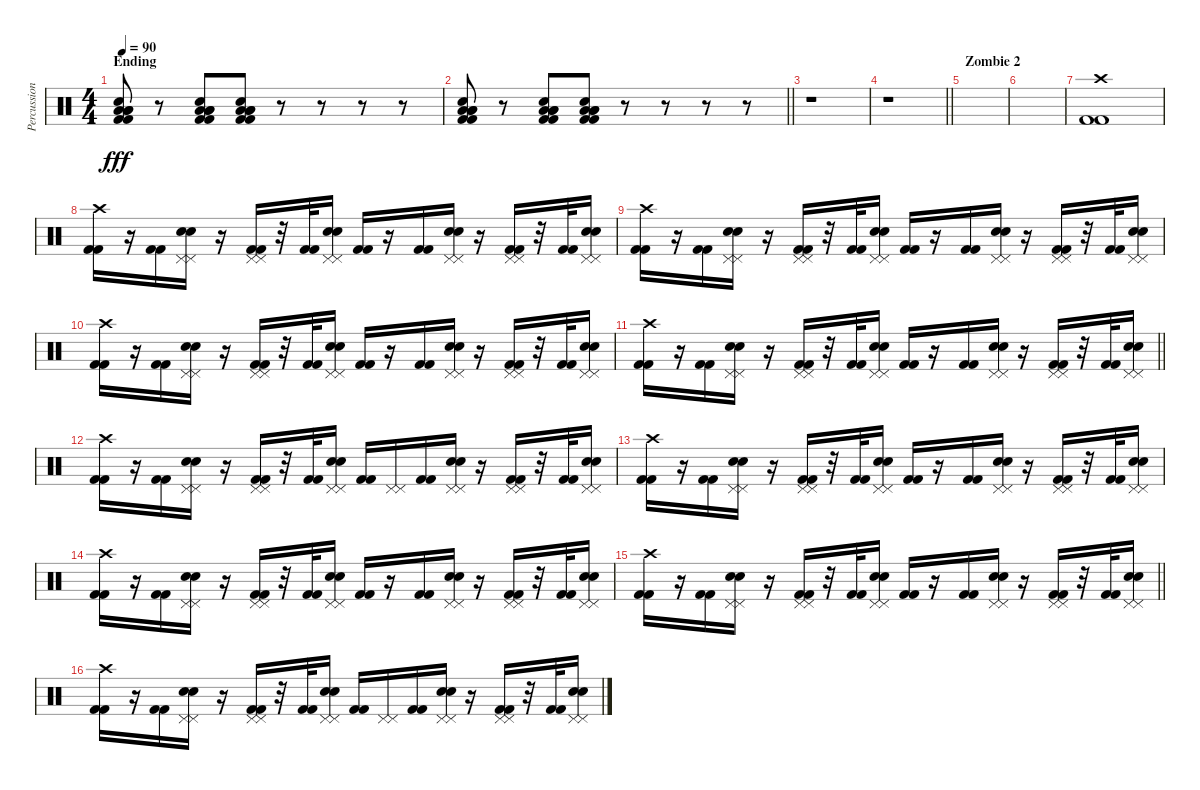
\track ("Percussion" "Percussion") {instrument percussion}
\staff {score}
\articulation defaults
\ts (4 4)
\section ("" "Ending")
\tempo 90
\clef neutral
\ks c
("Low Floor Tom (hit)" "Low Floor Tom (hit)" "Low Floor Tom (hit)" "Electric Snare (hit)" "Kick (hit) 2" "Kick (hit) 2").8{dy fff} r.8 ("Low Floor Tom (hit)" "Low Floor Tom (hit)" "Low Floor Tom (hit)" "Electric Snare (hit)" "Kick (hit) 2" "Kick (hit) 2").8 ("Low Floor Tom (hit)" "Low Floor Tom (hit)" "Low Floor Tom (hit)" "Electric Snare (hit)" "Kick (hit) 2" "Kick (hit) 2").8 r.8 r.8 r.8 r.8 |
\barLineRight lightlight
("Low Floor Tom (hit)" "Low Floor Tom (hit)" "Low Floor Tom (hit)" "Electric Snare (hit)" "Kick (hit) 2" "Kick (hit) 2").8 r.8 ("Low Floor Tom (hit)" "Low Floor Tom (hit)" "Low Floor Tom (hit)" "Electric Snare (hit)" "Kick (hit) 2" "Kick (hit) 2").8 ("Low Floor Tom (hit)" "Low Floor Tom (hit)" "Low Floor Tom (hit)" "Electric Snare (hit)" "Kick (hit) 2" "Kick (hit) 2").8 r.8 r.8 r.8 r.8 |
r.1 |
\barLineRight lightlight
r.1 |
\section ("" "Zombie 2")
|
|
("Crash high (hit)" "Kick (hit) 2" "Kick (hit) 2").1 |
("Crash high (hit)" "Kick (hit) 2" "Kick (hit) 2").16 r.16 ("Kick (hit) 2" "Kick (hit) 2").16 ("Pedal Hi-Hat (hit)" "Pedal Hi-Hat (hit)" "Electric Snare (hit)" "Electric Snare (hit)").16 r.16 ("Pedal Hi-Hat (hit)" "Pedal Hi-Hat (hit)" "Kick (hit) 2" "Kick (hit) 2").16 r.32 ("Kick (hit) 2" "Kick (hit) 2").32 ("Pedal Hi-Hat (hit)" "Pedal Hi-Hat (hit)" "Electric Snare (hit)" "Electric Snare (hit)").16 ("Kick (hit) 2" "Kick (hit) 2").16 r.16 ("Kick (hit) 2" "Kick (hit) 2").16 ("Pedal Hi-Hat (hit)" "Pedal Hi-Hat (hit)" "Electric Snare (hit)" "Electric Snare (hit)").16 r.16 ("Pedal Hi-Hat (hit)" "Pedal Hi-Hat (hit)" "Kick (hit) 2" "Kick (hit) 2").16 r.32 ("Kick (hit) 2" "Kick (hit) 2").32 ("Pedal Hi-Hat (hit)" "Pedal Hi-Hat (hit)" "Electric Snare (hit)" "Electric Snare (hit)").16 |
("Crash high (hit)" "Kick (hit) 2" "Kick (hit) 2").16 r.16 ("Kick (hit) 2" "Kick (hit) 2").16 ("Pedal Hi-Hat (hit)" "Pedal Hi-Hat (hit)" "Electric Snare (hit)" "Electric Snare (hit)").16 r.16 ("Pedal Hi-Hat (hit)" "Pedal Hi-Hat (hit)" "Kick (hit) 2" "Kick (hit) 2").16 r.32 ("Kick (hit) 2" "Kick (hit) 2").32 ("Pedal Hi-Hat (hit)" "Pedal Hi-Hat (hit)" "Electric Snare (hit)" "Electric Snare (hit)").16 ("Kick (hit) 2" "Kick (hit) 2").16 r.16 ("Kick (hit) 2" "Kick (hit) 2").16 ("Pedal Hi-Hat (hit)" "Pedal Hi-Hat (hit)" "Electric Snare (hit)" "Electric Snare (hit)").16 r.16 ("Pedal Hi-Hat (hit)" "Pedal Hi-Hat (hit)" "Kick (hit) 2" "Kick (hit) 2").16 r.32 ("Kick (hit) 2" "Kick (hit) 2").32 ("Pedal Hi-Hat (hit)" "Pedal Hi-Hat (hit)" "Electric Snare (hit)" "Electric Snare (hit)").16 |
("Crash high (hit)" "Kick (hit) 2" "Kick (hit) 2").16 r.16 ("Kick (hit) 2" "Kick (hit) 2").16 ("Pedal Hi-Hat (hit)" "Pedal Hi-Hat (hit)" "Electric Snare (hit)" "Electric Snare (hit)").16 r.16 ("Pedal Hi-Hat (hit)" "Pedal Hi-Hat (hit)" "Kick (hit) 2" "Kick (hit) 2").16 r.32 ("Kick (hit) 2" "Kick (hit) 2").32 ("Pedal Hi-Hat (hit)" "Pedal Hi-Hat (hit)" "Electric Snare (hit)" "Electric Snare (hit)").16 ("Kick (hit) 2" "Kick (hit) 2").16 r.16 ("Kick (hit) 2" "Kick (hit) 2").16 ("Pedal Hi-Hat (hit)" "Pedal Hi-Hat (hit)" "Electric Snare (hit)" "Electric Snare (hit)").16 r.16 ("Pedal Hi-Hat (hit)" "Pedal Hi-Hat (hit)" "Kick (hit) 2" "Kick (hit) 2").16 r.32 ("Kick (hit) 2" "Kick (hit) 2").32 ("Pedal Hi-Hat (hit)" "Pedal Hi-Hat (hit)" "Electric Snare (hit)" "Electric Snare (hit)").16 |
\barLineRight lightlight
("Crash high (hit)" "Kick (hit) 2" "Kick (hit) 2").16 r.16 ("Kick (hit) 2" "Kick (hit) 2").16 ("Pedal Hi-Hat (hit)" "Pedal Hi-Hat (hit)" "Electric Snare (hit)" "Electric Snare (hit)").16 r.16 ("Pedal Hi-Hat (hit)" "Pedal Hi-Hat (hit)" "Kick (hit) 2" "Kick (hit) 2").16 r.32 ("Kick (hit) 2" "Kick (hit) 2").32 ("Pedal Hi-Hat (hit)" "Pedal Hi-Hat (hit)" "Electric Snare (hit)" "Electric Snare (hit)").16 ("Kick (hit) 2" "Kick (hit) 2").16 r.16 ("Kick (hit) 2" "Kick (hit) 2").16 ("Pedal Hi-Hat (hit)" "Pedal Hi-Hat (hit)" "Electric Snare (hit)" "Electric Snare (hit)").16 r.16 ("Pedal Hi-Hat (hit)" "Pedal Hi-Hat (hit)" "Kick (hit) 2" "Kick (hit) 2").16 r.32 ("Kick (hit) 2" "Kick (hit) 2").32 ("Pedal Hi-Hat (hit)" "Pedal Hi-Hat (hit)" "Electric Snare (hit)" "Electric Snare (hit)").16 |
("Crash high (hit)" "Kick (hit) 2" "Kick (hit) 2").16 r.16 ("Kick (hit) 2" "Kick (hit) 2").16 ("Pedal Hi-Hat (hit)" "Pedal Hi-Hat (hit)" "Electric Snare (hit)" "Electric Snare (hit)").16 r.16 ("Pedal Hi-Hat (hit)" "Pedal Hi-Hat (hit)" "Kick (hit) 2" "Kick (hit) 2").16 r.32 ("Kick (hit) 2" "Kick (hit) 2").32 ("Pedal Hi-Hat (hit)" "Pedal Hi-Hat (hit)" "Electric Snare (hit)" "Electric Snare (hit)").16 ("Kick (hit) 2" "Kick (hit) 2").16 ("Pedal Hi-Hat (hit)" "Pedal Hi-Hat (hit)").16 ("Kick (hit) 2" "Kick (hit) 2").16 ("Pedal Hi-Hat (hit)" "Pedal Hi-Hat (hit)" "Electric Snare (hit)" "Electric Snare (hit)").16 r.16 ("Pedal Hi-Hat (hit)" "Pedal Hi-Hat (hit)" "Kick (hit) 2" "Kick (hit) 2").16 r.32 ("Kick (hit) 2" "Kick (hit) 2").32 ("Pedal Hi-Hat (hit)" "Pedal Hi-Hat (hit)" "Electric Snare (hit)" "Electric Snare (hit)").16 |
("Crash high (hit)" "Kick (hit) 2" "Kick (hit) 2").16 r.16 ("Kick (hit) 2" "Kick (hit) 2").16 ("Pedal Hi-Hat (hit)" "Pedal Hi-Hat (hit)" "Electric Snare (hit)" "Electric Snare (hit)").16 r.16 ("Pedal Hi-Hat (hit)" "Pedal Hi-Hat (hit)" "Kick (hit) 2" "Kick (hit) 2").16 r.32 ("Kick (hit) 2" "Kick (hit) 2").32 ("Pedal Hi-Hat (hit)" "Pedal Hi-Hat (hit)" "Electric Snare (hit)" "Electric Snare (hit)").16 ("Kick (hit) 2" "Kick (hit) 2").16 r.16 ("Kick (hit) 2" "Kick (hit) 2").16 ("Pedal Hi-Hat (hit)" "Pedal Hi-Hat (hit)" "Electric Snare (hit)" "Electric Snare (hit)").16 r.16 ("Pedal Hi-Hat (hit)" "Pedal Hi-Hat (hit)" "Kick (hit) 2" "Kick (hit) 2").16 r.32 ("Kick (hit) 2" "Kick (hit) 2").32 ("Pedal Hi-Hat (hit)" "Pedal Hi-Hat (hit)" "Electric Snare (hit)" "Electric Snare (hit)").16 |
("Crash high (hit)" "Kick (hit) 2" "Kick (hit) 2").16 r.16 ("Kick (hit) 2" "Kick (hit) 2").16 ("Pedal Hi-Hat (hit)" "Pedal Hi-Hat (hit)" "Electric Snare (hit)" "Electric Snare (hit)").16 r.16 ("Pedal Hi-Hat (hit)" "Pedal Hi-Hat (hit)" "Kick (hit) 2" "Kick (hit) 2").16 r.32 ("Kick (hit) 2" "Kick (hit) 2").32 ("Pedal Hi-Hat (hit)" "Pedal Hi-Hat (hit)" "Electric Snare (hit)" "Electric Snare (hit)").16 ("Kick (hit) 2" "Kick (hit) 2").16 r.16 ("Kick (hit) 2" "Kick (hit) 2").16 ("Pedal Hi-Hat (hit)" "Pedal Hi-Hat (hit)" "Electric Snare (hit)" "Electric Snare (hit)").16 r.16 ("Pedal Hi-Hat (hit)" "Pedal Hi-Hat (hit)" "Kick (hit) 2" "Kick (hit) 2").16 r.32 ("Kick (hit) 2" "Kick (hit) 2").32 ("Pedal Hi-Hat (hit)" "Pedal Hi-Hat (hit)" "Electric Snare (hit)" "Electric Snare (hit)").16 |
\barLineRight lightlight
("Crash high (hit)" "Kick (hit) 2" "Kick (hit) 2").16 r.16 ("Kick (hit) 2" "Kick (hit) 2").16 ("Pedal Hi-Hat (hit)" "Pedal Hi-Hat (hit)" "Electric Snare (hit)" "Electric Snare (hit)").16 r.16 ("Pedal Hi-Hat (hit)" "Pedal Hi-Hat (hit)" "Kick (hit) 2" "Kick (hit) 2").16 r.32 ("Kick (hit) 2" "Kick (hit) 2").32 ("Pedal Hi-Hat (hit)" "Pedal Hi-Hat (hit)" "Electric Snare (hit)" "Electric Snare (hit)").16 ("Kick (hit) 2" "Kick (hit) 2").16 r.16 ("Kick (hit) 2" "Kick (hit) 2").16 ("Pedal Hi-Hat (hit)" "Pedal Hi-Hat (hit)" "Electric Snare (hit)" "Electric Snare (hit)").16 r.16 ("Pedal Hi-Hat (hit)" "Pedal Hi-Hat (hit)" "Kick (hit) 2" "Kick (hit) 2").16 r.32 ("Kick (hit) 2" "Kick (hit) 2").32 ("Pedal Hi-Hat (hit)" "Pedal Hi-Hat (hit)" "Electric Snare (hit)" "Electric Snare (hit)").16 |
("Crash high (hit)" "Kick (hit) 2" "Kick (hit) 2").16 r.16 ("Kick (hit) 2" "Kick (hit) 2").16 ("Pedal Hi-Hat (hit)" "Pedal Hi-Hat (hit)" "Electric Snare (hit)" "Electric Snare (hit)").16 r.16 ("Pedal Hi-Hat (hit)" "Pedal Hi-Hat (hit)" "Kick (hit) 2" "Kick (hit) 2").16 r.32 ("Kick (hit) 2" "Kick (hit) 2").32 ("Pedal Hi-Hat (hit)" "Pedal Hi-Hat (hit)" "Electric Snare (hit)" "Electric Snare (hit)").16 ("Kick (hit) 2" "Kick (hit) 2").16 ("Pedal Hi-Hat (hit)" "Pedal Hi-Hat (hit)").16 ("Kick (hit) 2" "Kick (hit) 2").16 ("Pedal Hi-Hat (hit)" "Pedal Hi-Hat (hit)" "Electric Snare (hit)" "Electric Snare (hit)").16 r.16 ("Pedal Hi-Hat (hit)" "Pedal Hi-Hat (hit)" "Kick (hit) 2" "Kick (hit) 2").16 r.32 ("Kick (hit) 2" "Kick (hit) 2").32 ("Pedal Hi-Hat (hit)" "Pedal Hi-Hat (hit)" "Electric Snare (hit)" "Electric Snare (hit)").16
